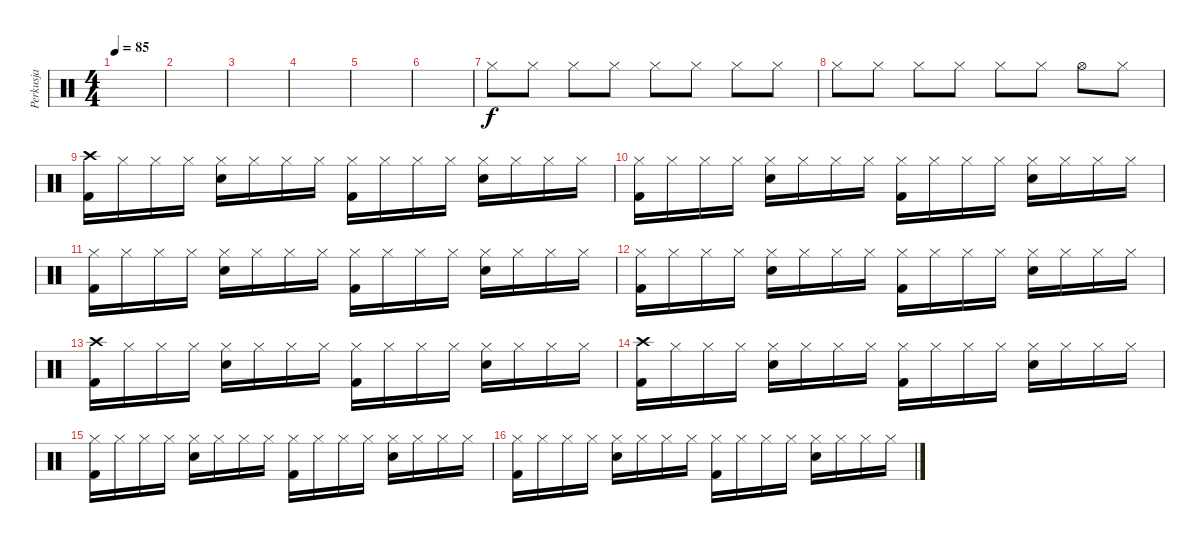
\track ("Perkusja" "Perkusja") {instrument percussion}
\staff {score}
\articulation defaults
\ts (4 4)
\tempo 85
\clef neutral
\ks c
|
|
|
|
|
|
"Hi-Hat (closed)".8 "Hi-Hat (closed)".8 "Hi-Hat (closed)".8 "Hi-Hat (closed)".8 "Hi-Hat (closed)".8 "Hi-Hat (closed)".8 "Hi-Hat (closed)".8 "Hi-Hat (closed)".8 |
"Hi-Hat (closed)".8 "Hi-Hat (closed)".8 "Hi-Hat (closed)".8 "Hi-Hat (closed)".8 "Hi-Hat (closed)".8 "Hi-Hat (closed)".8 "Hi-Hat (open)".8 "Hi-Hat (closed)".8 |
("Crash high (hit)" "Kick (hit) 2").16 "Hi-Hat (closed)".16 "Hi-Hat (closed)".16 "Hi-Hat (closed)".16 ("Hi-Hat (closed)" "Electric Snare (hit)").16 "Hi-Hat (closed)".16 "Hi-Hat (closed)".16 "Hi-Hat (closed)".16 ("Hi-Hat (closed)" "Kick (hit) 2").16 "Hi-Hat (closed)".16 "Hi-Hat (closed)".16 "Hi-Hat (closed)".16 ("Hi-Hat (closed)" "Electric Snare (hit)").16 "Hi-Hat (closed)".16 "Hi-Hat (closed)".16 "Hi-Hat (closed)".16 |
("Hi-Hat (closed)" "Kick (hit) 2").16 "Hi-Hat (closed)".16 "Hi-Hat (closed)".16 "Hi-Hat (closed)".16 ("Hi-Hat (closed)" "Electric Snare (hit)").16 "Hi-Hat (closed)".16 "Hi-Hat (closed)".16 "Hi-Hat (closed)".16 ("Hi-Hat (closed)" "Kick (hit) 2").16 "Hi-Hat (closed)".16 "Hi-Hat (closed)".16 "Hi-Hat (closed)".16 ("Hi-Hat (closed)" "Electric Snare (hit)").16 "Hi-Hat (closed)".16 "Hi-Hat (closed)".16 "Hi-Hat (closed)".16 |
("Hi-Hat (closed)" "Kick (hit) 2").16 "Hi-Hat (closed)".16 "Hi-Hat (closed)".16 "Hi-Hat (closed)".16 ("Hi-Hat (closed)" "Electric Snare (hit)").16 "Hi-Hat (closed)".16 "Hi-Hat (closed)".16 "Hi-Hat (closed)".16 ("Hi-Hat (closed)" "Kick (hit) 2").16 "Hi-Hat (closed)".16 "Hi-Hat (closed)".16 "Hi-Hat (closed)".16 ("Hi-Hat (closed)" "Electric Snare (hit)").16 "Hi-Hat (closed)".16 "Hi-Hat (closed)".16 "Hi-Hat (closed)".16 |
("Hi-Hat (closed)" "Kick (hit) 2").16 "Hi-Hat (closed)".16 "Hi-Hat (closed)".16 "Hi-Hat (closed)".16 ("Hi-Hat (closed)" "Electric Snare (hit)").16 "Hi-Hat (closed)".16 "Hi-Hat (closed)".16 "Hi-Hat (closed)".16 ("Hi-Hat (closed)" "Kick (hit) 2").16 "Hi-Hat (closed)".16 "Hi-Hat (closed)".16 "Hi-Hat (closed)".16 ("Hi-Hat (closed)" "Electric Snare (hit)").16 "Hi-Hat (closed)".16 "Hi-Hat (closed)".16 "Hi-Hat (closed)".16 |
("Crash high (hit)" "Kick (hit) 2").16 "Hi-Hat (closed)".16 "Hi-Hat (closed)".16 "Hi-Hat (closed)".16 ("Hi-Hat (closed)" "Electric Snare (hit)").16 "Hi-Hat (closed)".16 "Hi-Hat (closed)".16 "Hi-Hat (closed)".16 ("Hi-Hat (closed)" "Kick (hit) 2").16 "Hi-Hat (closed)".16 "Hi-Hat (closed)".16 "Hi-Hat (closed)".16 ("Hi-Hat (closed)" "Electric Snare (hit)").16 "Hi-Hat (closed)".16 "Hi-Hat (closed)".16 "Hi-Hat (closed)".16 |
("Crash high (hit)" "Kick (hit) 2").16 "Hi-Hat (closed)".16 "Hi-Hat (closed)".16 "Hi-Hat (closed)".16 ("Hi-Hat (closed)" "Electric Snare (hit)").16 "Hi-Hat (closed)".16 "Hi-Hat (closed)".16 "Hi-Hat (closed)".16 ("Hi-Hat (closed)" "Kick (hit) 2").16 "Hi-Hat (closed)".16 "Hi-Hat (closed)".16 "Hi-Hat (closed)".16 ("Hi-Hat (closed)" "Electric Snare (hit)").16 "Hi-Hat (closed)".16 "Hi-Hat (closed)".16 "Hi-Hat (closed)".16 |
("Hi-Hat (closed)" "Kick (hit) 2").16 "Hi-Hat (closed)".16 "Hi-Hat (closed)".16 "Hi-Hat (closed)".16 ("Hi-Hat (closed)" "Electric Snare (hit)").16 "Hi-Hat (closed)".16 "Hi-Hat (closed)".16 "Hi-Hat (closed)".16 ("Hi-Hat (closed)" "Kick (hit) 2").16 "Hi-Hat (closed)".16 "Hi-Hat (closed)".16 "Hi-Hat (closed)".16 ("Hi-Hat (closed)" "Electric Snare (hit)").16 "Hi-Hat (closed)".16 "Hi-Hat (closed)".16 "Hi-Hat (closed)".16 |
("Hi-Hat (closed)" "Kick (hit) 2").16 "Hi-Hat (closed)".16 "Hi-Hat (closed)".16 "Hi-Hat (closed)".16 ("Hi-Hat (closed)" "Electric Snare (hit)").16 "Hi-Hat (closed)".16 "Hi-Hat (closed)".16 "Hi-Hat (closed)".16 ("Hi-Hat (closed)" "Kick (hit) 2").16 "Hi-Hat (closed)".16 "Hi-Hat (closed)".16 "Hi-Hat (closed)".16 ("Hi-Hat (closed)" "Electric Snare (hit)").16 "Hi-Hat (closed)".16 "Hi-Hat (closed)".16 "Hi-Hat (closed)".16
